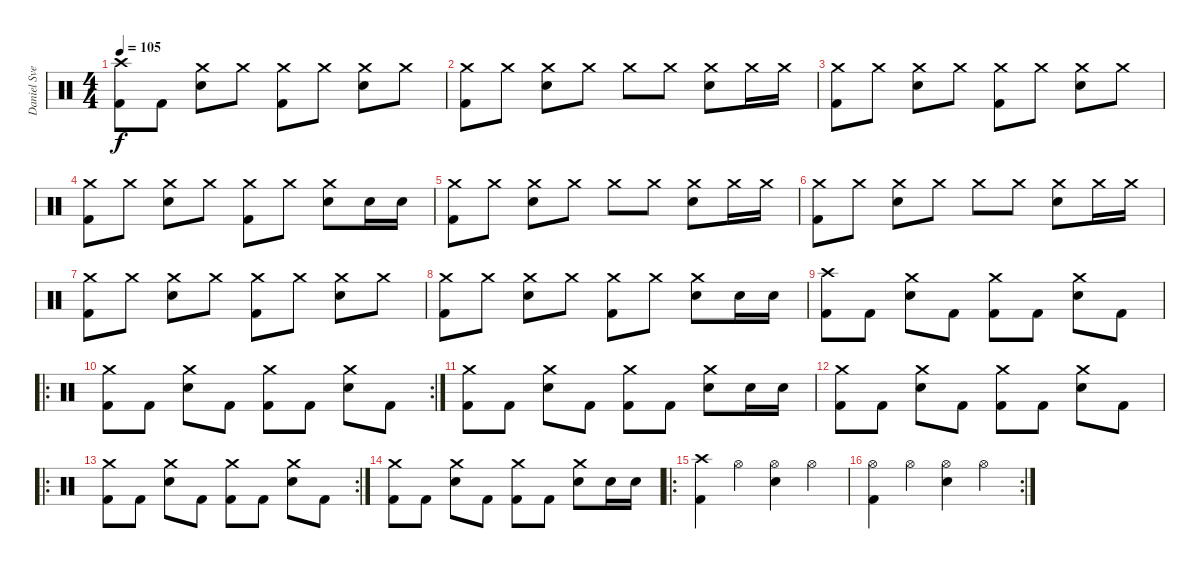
\track ("Daniel Svensson" "Daniel Sve") {instrument percussion}
\staff {score}
\articulation defaults
\ts (4 4)
\tempo 105
\clef neutral
\ks c
("Crash high (hit)" "Kick (hit) 2").8{dy f} "Kick (hit) 2".8 ("Crash medium (hit)" "Snare (hit) 2").8 "Crash medium (hit)".8 ("Crash medium (hit)" "Kick (hit) 2").8 "Crash medium (hit)".8 ("Crash medium (hit)" "Snare (hit) 2").8 "Crash medium (hit)".8 |
("Crash medium (hit)" "Kick (hit) 2").8 "Crash medium (hit)".8 ("Crash medium (hit)" "Snare (hit) 2").8 "Crash medium (hit)".8 "Crash medium (hit)".8 "Crash medium (hit)".8 ("Crash medium (hit)" "Snare (hit) 2").8 "Crash medium (hit)".16 "Crash medium (hit)".16 |
("Crash medium (hit)" "Kick (hit) 2").8 "Crash medium (hit)".8 ("Crash medium (hit)" "Snare (hit) 2").8 "Crash medium (hit)".8 ("Crash medium (hit)" "Kick (hit) 2").8 "Crash medium (hit)".8 ("Crash medium (hit)" "Snare (hit) 2").8 "Crash medium (hit)".8 |
("Crash medium (hit)" "Kick (hit) 2").8 "Crash medium (hit)".8 ("Crash medium (hit)" "Snare (hit) 2").8 "Crash medium (hit)".8 ("Crash medium (hit)" "Kick (hit) 2").8 "Crash medium (hit)".8 ("Crash medium (hit)" "Snare (hit) 2").8 "Snare (hit) 2".16 "Snare (hit) 2".16 |
("Crash medium (hit)" "Kick (hit) 2").8 "Crash medium (hit)".8 ("Crash medium (hit)" "Snare (hit) 2").8 "Crash medium (hit)".8 "Crash medium (hit)".8 "Crash medium (hit)".8 ("Crash medium (hit)" "Snare (hit) 2").8 "Crash medium (hit)".16 "Crash medium (hit)".16 |
("Crash medium (hit)" "Kick (hit) 2").8 "Crash medium (hit)".8 ("Crash medium (hit)" "Snare (hit) 2").8 "Crash medium (hit)".8 "Crash medium (hit)".8 "Crash medium (hit)".8 ("Crash medium (hit)" "Snare (hit) 2").8 "Crash medium (hit)".16 "Crash medium (hit)".16 |
("Crash medium (hit)" "Kick (hit) 2").8 "Crash medium (hit)".8 ("Crash medium (hit)" "Snare (hit) 2").8 "Crash medium (hit)".8 ("Crash medium (hit)" "Kick (hit) 2").8 "Crash medium (hit)".8 ("Crash medium (hit)" "Snare (hit) 2").8 "Crash medium (hit)".8 |
("Crash medium (hit)" "Kick (hit) 2").8 "Crash medium (hit)".8 ("Crash medium (hit)" "Snare (hit) 2").8 "Crash medium (hit)".8 ("Crash medium (hit)" "Kick (hit) 2").8 "Crash medium (hit)".8 ("Crash medium (hit)" "Snare (hit) 2").8 "Snare (hit) 2".16 "Snare (hit) 2".16 |
("Crash high (hit)" "Kick (hit) 2").8 "Kick (hit) 2".8 ("Crash medium (hit)" "Snare (hit) 2").8 "Kick (hit) 2".8 ("Crash medium (hit)" "Kick (hit) 2").8 "Kick (hit) 2".8 ("Crash medium (hit)" "Snare (hit) 2").8 "Kick (hit) 2".8 |
\ro
\rc 2
("Crash medium (hit)" "Kick (hit) 2").8 "Kick (hit) 2".8 ("Crash medium (hit)" "Snare (hit) 2").8 "Kick (hit) 2".8 ("Crash medium (hit)" "Kick (hit) 2").8 "Kick (hit) 2".8 ("Crash medium (hit)" "Snare (hit) 2").8 "Kick (hit) 2".8 |
("Crash medium (hit)" "Kick (hit) 2").8 "Kick (hit) 2".8 ("Crash medium (hit)" "Snare (hit) 2").8 "Kick (hit) 2".8 ("Crash medium (hit)" "Kick (hit) 2").8 "Kick (hit) 2".8 ("Crash medium (hit)" "Snare (hit) 2").8 "Snare (hit) 2".16 "Snare (hit) 2".16 |
("Crash medium (hit)" "Kick (hit) 2").8 "Kick (hit) 2".8 ("Crash medium (hit)" "Snare (hit) 2").8 "Kick (hit) 2".8 ("Crash medium (hit)" "Kick (hit) 2").8 "Kick (hit) 2".8 ("Crash medium (hit)" "Snare (hit) 2").8 "Kick (hit) 2".8 |
\ro
\rc 2
("Crash medium (hit)" "Kick (hit) 2").8 "Kick (hit) 2".8 ("Crash medium (hit)" "Snare (hit) 2").8 "Kick (hit) 2".8 ("Crash medium (hit)" "Kick (hit) 2").8 "Kick (hit) 2".8 ("Crash medium (hit)" "Snare (hit) 2").8 "Kick (hit) 2".8 |
("Crash medium (hit)" "Kick (hit) 2").8 "Kick (hit) 2".8 ("Crash medium (hit)" "Snare (hit) 2").8 "Kick (hit) 2".8 ("Crash medium (hit)" "Kick (hit) 2").8 "Kick (hit) 2".8 ("Crash medium (hit)" "Snare (hit) 2").8 "Snare (hit) 2".16 "Snare (hit) 2".16 |
\ro
("Kick (hit) 2" "Crash high (hit)").4 "Hi-Hat (open)".4 ("Electric Snare (hit)" "Hi-Hat (open)").4 "Hi-Hat (open)".4 |
\rc 2
("Hi-Hat (open)" "Kick (hit) 2").4 "Hi-Hat (open)".4 ("Electric Snare (hit)" "Hi-Hat (open)").4 "Hi-Hat (open)".4
